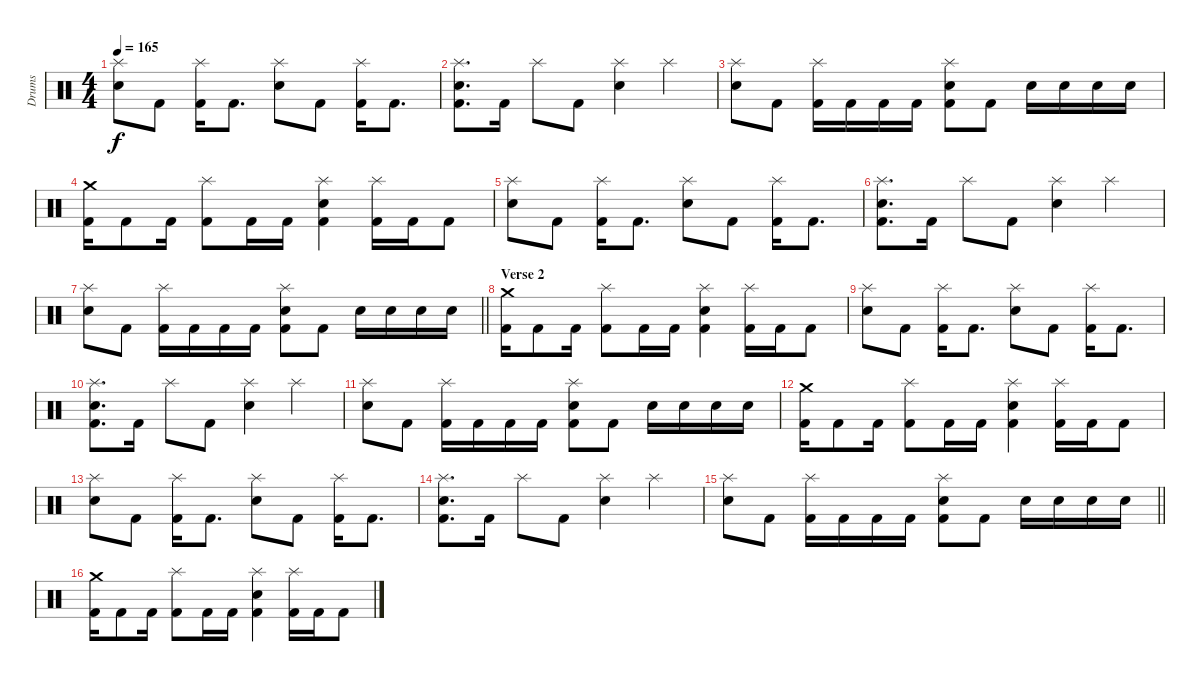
\track ("Drums" "Drums") {instrument percussion}
\staff {score}
\articulation defaults
\ts (4 4)
\tempo 165
\clef neutral
\ks c
("Splash (hit)" "Snare (hit) 2").8{dy f} "Kick (hit) 2".8 ("Splash (hit)" "Kick (hit) 2").16 "Kick (hit) 2".8{d} ("Splash (hit)" "Snare (hit) 2").8 "Kick (hit) 2".8 ("Splash (hit)" "Kick (hit) 2").16 "Kick (hit) 2".8{d} |
("Splash (hit)" "Snare (hit) 2" "Kick (hit) 2").8{d} "Kick (hit) 2".16 "Splash (hit)".8 "Kick (hit) 2".8 ("Splash (hit)" "Snare (hit) 2").4 "Splash (hit)".4 |
("Splash (hit)" "Snare (hit) 2").8 "Kick (hit) 2".8 ("Splash (hit)" "Kick (hit) 2").16 "Kick (hit) 2".16 "Kick (hit) 2".16 "Kick (hit) 2".16 ("Splash (hit)" "Snare (hit) 2" "Kick (hit) 2").8 "Kick (hit) 2".8 "Snare (hit) 2".16 "Snare (hit) 2".16 "Snare (hit) 2".16 "Snare (hit) 2".16 |
("Crash medium (hit)" "Kick (hit) 2").16 "Kick (hit) 2".8 "Kick (hit) 2".16 ("Splash (hit)" "Kick (hit) 2").8 "Kick (hit) 2".16 "Kick (hit) 2".16 ("Splash (hit)" "Snare (hit) 2" "Kick (hit) 2").4 ("Splash (hit)" "Kick (hit) 2").16 "Kick (hit) 2".16 "Kick (hit) 2".8 |
("Splash (hit)" "Snare (hit) 2").8 "Kick (hit) 2".8 ("Splash (hit)" "Kick (hit) 2").16 "Kick (hit) 2".8{d} ("Splash (hit)" "Snare (hit) 2").8 "Kick (hit) 2".8 ("Splash (hit)" "Kick (hit) 2").16 "Kick (hit) 2".8{d} |
("Splash (hit)" "Snare (hit) 2" "Kick (hit) 2").8{d} "Kick (hit) 2".16 "Splash (hit)".8 "Kick (hit) 2".8 ("Splash (hit)" "Snare (hit) 2").4 "Splash (hit)".4 |
\barLineRight lightlight
("Splash (hit)" "Snare (hit) 2").8 "Kick (hit) 2".8 ("Splash (hit)" "Kick (hit) 2").16 "Kick (hit) 2".16 "Kick (hit) 2".16 "Kick (hit) 2".16 ("Splash (hit)" "Snare (hit) 2" "Kick (hit) 2").8 "Kick (hit) 2".8 "Snare (hit) 2".16 "Snare (hit) 2".16 "Snare (hit) 2".16 "Snare (hit) 2".16 |
\section ("" "Verse 2")
("Crash medium (hit)" "Kick (hit) 2").16 "Kick (hit) 2".8 "Kick (hit) 2".16 ("Splash (hit)" "Kick (hit) 2").8 "Kick (hit) 2".16 "Kick (hit) 2".16 ("Splash (hit)" "Snare (hit) 2" "Kick (hit) 2").4 ("Splash (hit)" "Kick (hit) 2").16 "Kick (hit) 2".16 "Kick (hit) 2".8 |
("Splash (hit)" "Snare (hit) 2").8 "Kick (hit) 2".8 ("Splash (hit)" "Kick (hit) 2").16 "Kick (hit) 2".8{d} ("Splash (hit)" "Snare (hit) 2").8 "Kick (hit) 2".8 ("Splash (hit)" "Kick (hit) 2").16 "Kick (hit) 2".8{d} |
("Splash (hit)" "Snare (hit) 2" "Kick (hit) 2").8{d} "Kick (hit) 2".16 "Splash (hit)".8 "Kick (hit) 2".8 ("Splash (hit)" "Snare (hit) 2").4 "Splash (hit)".4 |
("Splash (hit)" "Snare (hit) 2").8 "Kick (hit) 2".8 ("Splash (hit)" "Kick (hit) 2").16 "Kick (hit) 2".16 "Kick (hit) 2".16 "Kick (hit) 2".16 ("Splash (hit)" "Snare (hit) 2" "Kick (hit) 2").8 "Kick (hit) 2".8 "Snare (hit) 2".16 "Snare (hit) 2".16 "Snare (hit) 2".16 "Snare (hit) 2".16 |
("Crash medium (hit)" "Kick (hit) 2").16 "Kick (hit) 2".8 "Kick (hit) 2".16 ("Splash (hit)" "Kick (hit) 2").8 "Kick (hit) 2".16 "Kick (hit) 2".16 ("Splash (hit)" "Snare (hit) 2" "Kick (hit) 2").4 ("Splash (hit)" "Kick (hit) 2").16 "Kick (hit) 2".16 "Kick (hit) 2".8 |
("Splash (hit)" "Snare (hit) 2").8 "Kick (hit) 2".8 ("Splash (hit)" "Kick (hit) 2").16 "Kick (hit) 2".8{d} ("Splash (hit)" "Snare (hit) 2").8 "Kick (hit) 2".8 ("Splash (hit)" "Kick (hit) 2").16 "Kick (hit) 2".8{d} |
("Splash (hit)" "Snare (hit) 2" "Kick (hit) 2").8{d} "Kick (hit) 2".16 "Splash (hit)".8 "Kick (hit) 2".8 ("Splash (hit)" "Snare (hit) 2").4 "Splash (hit)".4 |
\barLineRight lightlight
("Splash (hit)" "Snare (hit) 2").8 "Kick (hit) 2".8 ("Splash (hit)" "Kick (hit) 2").16 "Kick (hit) 2".16 "Kick (hit) 2".16 "Kick (hit) 2".16 ("Splash (hit)" "Snare (hit) 2" "Kick (hit) 2").8 "Kick (hit) 2".8 "Snare (hit) 2".16 "Snare (hit) 2".16 "Snare (hit) 2".16 "Snare (hit) 2".16 |
("Crash medium (hit)" "Kick (hit) 2").16 "Kick (hit) 2".8 "Kick (hit) 2".16 ("Splash (hit)" "Kick (hit) 2").8 "Kick (hit) 2".16 "Kick (hit) 2".16 ("Splash (hit)" "Snare (hit) 2" "Kick (hit) 2").4 ("Splash (hit)" "Kick (hit) 2").16 "Kick (hit) 2".16 "Kick (hit) 2".8
